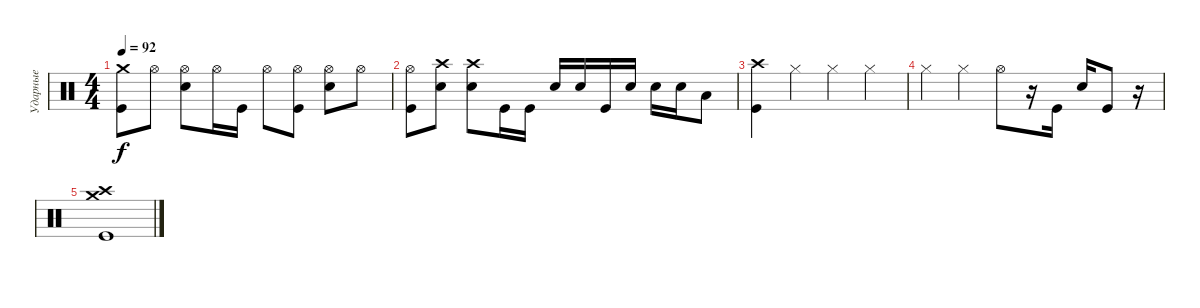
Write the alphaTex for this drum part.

\track ("Ударные" "Ударные") {instrument percussion}
\staff {score}
\articulation defaults
\ts (4 4)
\tempo 92
\clef neutral
\ks c
("Kick (hit)" "Crash medium (hit)").8{dy f} "Hi-Hat (open)".8 ("Hi-Hat (open)" "Snare (hit) 2").8 "Hi-Hat (open)".16 "Kick (hit)".16 "Hi-Hat (open)".8 ("Kick (hit)" "Hi-Hat (open)").8 ("Hi-Hat (open)" "Snare (hit) 2").8 "Hi-Hat (open)".8 |
("Kick (hit)" "Hi-Hat (open)").8 ("Crash high (hit)" "Snare (hit) 2").8 ("Crash high (hit)" "Snare (hit) 2").8 "Kick (hit)".16 "Kick (hit)".16 "Snare (hit) 2".16 "Snare (hit) 2".16 "Kick (hit)".16 "Snare (hit) 2".16 "Snare (hit) 2".16 "Snare (hit) 2".16 "Low Tom (hit)".8 |
("Kick (hit)" "Crash high (hit)").4 "Hi-Hat (closed)".4 "Hi-Hat (closed)".4 "Hi-Hat (closed)".4 |
"Hi-Hat (closed)".4 "Hi-Hat (closed)".4 "Hi-Hat (open)".8 r.16 "Kick (hit)".16 "Snare (hit) 2".16 "Kick (hit)".8 r.16 |
("Kick (hit)" "Crash high (hit)" "Crash medium (hit)").1
